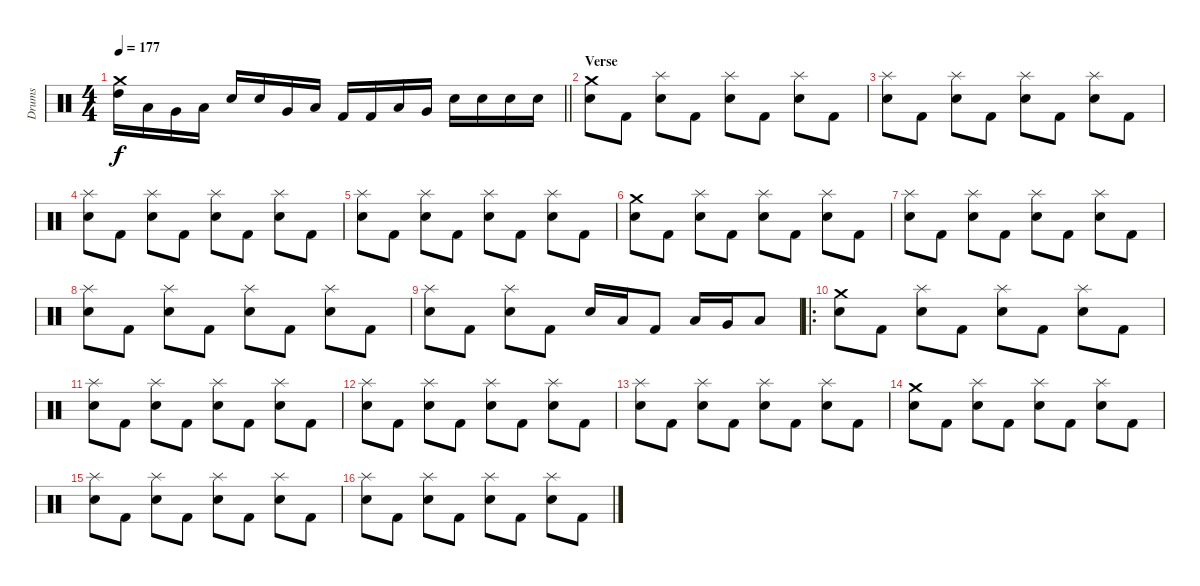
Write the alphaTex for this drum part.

\track ("Drums" "Drums") {instrument percussion}
\staff {score}
\articulation defaults
\ts (4 4)
\tempo 177
\clef neutral
\barLineRight lightlight
\ks c
("High Tom (hit)" "Crash medium (hit)").16{dy f} "Low Tom (hit)".16 "Very Low Tom (hit)".16 "Low Floor Tom (hit)".16 "Snare (hit) 2".16 "Snare (hit) 2".16 "Very Low Tom (hit)".16 "Low Floor Tom (hit)".16 "Kick (hit) 2".16 "Kick (hit) 2".16 "Low Tom (hit)".16 "Very Low Tom (hit)".16 "Snare (hit) 2".16 "Snare (hit) 2".16 "Snare (hit) 2".16 "Snare (hit) 2".16 |
\section ("" "Verse")
("Snare (hit) 2" "Crash medium (hit)").8 "Kick (hit) 2".8 ("Snare (hit) 2" "Splash (hit)").8 "Kick (hit) 2".8 ("Snare (hit) 2" "Splash (hit)").8 "Kick (hit) 2".8 ("Snare (hit) 2" "Splash (hit)").8 "Kick (hit) 2".8 |
("Snare (hit) 2" "Splash (hit)").8 "Kick (hit) 2".8 ("Snare (hit) 2" "Splash (hit)").8 "Kick (hit) 2".8 ("Snare (hit) 2" "Splash (hit)").8 "Kick (hit) 2".8 ("Snare (hit) 2" "Splash (hit)").8 "Kick (hit) 2".8 |
("Snare (hit) 2" "Splash (hit)").8 "Kick (hit) 2".8 ("Snare (hit) 2" "Splash (hit)").8 "Kick (hit) 2".8 ("Snare (hit) 2" "Splash (hit)").8 "Kick (hit) 2".8 ("Snare (hit) 2" "Splash (hit)").8 "Kick (hit) 2".8 |
("Snare (hit) 2" "Splash (hit)").8 "Kick (hit) 2".8 ("Snare (hit) 2" "Splash (hit)").8 "Kick (hit) 2".8 ("Snare (hit) 2" "Splash (hit)").8 "Kick (hit) 2".8 ("Snare (hit) 2" "Splash (hit)").8 "Kick (hit) 2".8 |
("Snare (hit) 2" "Crash medium (hit)").8 "Kick (hit) 2".8 ("Snare (hit) 2" "Splash (hit)").8 "Kick (hit) 2".8 ("Snare (hit) 2" "Splash (hit)").8 "Kick (hit) 2".8 ("Snare (hit) 2" "Splash (hit)").8 "Kick (hit) 2".8 |
("Snare (hit) 2" "Splash (hit)").8 "Kick (hit) 2".8 ("Snare (hit) 2" "Splash (hit)").8 "Kick (hit) 2".8 ("Snare (hit) 2" "Splash (hit)").8 "Kick (hit) 2".8 ("Snare (hit) 2" "Splash (hit)").8 "Kick (hit) 2".8 |
("Snare (hit) 2" "Splash (hit)").8 "Kick (hit) 2".8 ("Snare (hit) 2" "Splash (hit)").8 "Kick (hit) 2".8 ("Snare (hit) 2" "Splash (hit)").8 "Kick (hit) 2".8 ("Snare (hit) 2" "Splash (hit)").8 "Kick (hit) 2".8 |
("Snare (hit) 2" "Splash (hit)").8 "Kick (hit) 2".8 ("Snare (hit) 2" "Splash (hit)").8 "Kick (hit) 2".8 "Snare (hit) 2".16 "Low Tom (hit)".16 "Kick (hit) 2".8 "Low Tom (hit)".16 "Very Low Tom (hit)".16 "Low Floor Tom (hit)".8 |
\ro
("Snare (hit) 2" "Crash medium (hit)").8 "Kick (hit) 2".8 ("Snare (hit) 2" "Splash (hit)").8 "Kick (hit) 2".8 ("Snare (hit) 2" "Splash (hit)").8 "Kick (hit) 2".8 ("Snare (hit) 2" "Splash (hit)").8 "Kick (hit) 2".8 |
("Snare (hit) 2" "Splash (hit)").8 "Kick (hit) 2".8 ("Snare (hit) 2" "Splash (hit)").8 "Kick (hit) 2".8 ("Snare (hit) 2" "Splash (hit)").8 "Kick (hit) 2".8 ("Snare (hit) 2" "Splash (hit)").8 "Kick (hit) 2".8 |
("Snare (hit) 2" "Splash (hit)").8 "Kick (hit) 2".8 ("Snare (hit) 2" "Splash (hit)").8 "Kick (hit) 2".8 ("Snare (hit) 2" "Splash (hit)").8 "Kick (hit) 2".8 ("Snare (hit) 2" "Splash (hit)").8 "Kick (hit) 2".8 |
("Snare (hit) 2" "Splash (hit)").8 "Kick (hit) 2".8 ("Snare (hit) 2" "Splash (hit)").8 "Kick (hit) 2".8 ("Snare (hit) 2" "Splash (hit)").8 "Kick (hit) 2".8 ("Snare (hit) 2" "Splash (hit)").8 "Kick (hit) 2".8 |
("Snare (hit) 2" "Crash medium (hit)").8 "Kick (hit) 2".8 ("Snare (hit) 2" "Splash (hit)").8 "Kick (hit) 2".8 ("Snare (hit) 2" "Splash (hit)").8 "Kick (hit) 2".8 ("Snare (hit) 2" "Splash (hit)").8 "Kick (hit) 2".8 |
("Snare (hit) 2" "Splash (hit)").8 "Kick (hit) 2".8 ("Snare (hit) 2" "Splash (hit)").8 "Kick (hit) 2".8 ("Snare (hit) 2" "Splash (hit)").8 "Kick (hit) 2".8 ("Snare (hit) 2" "Splash (hit)").8 "Kick (hit) 2".8 |
("Snare (hit) 2" "Splash (hit)").8 "Kick (hit) 2".8 ("Snare (hit) 2" "Splash (hit)").8 "Kick (hit) 2".8 ("Snare (hit) 2" "Splash (hit)").8 "Kick (hit) 2".8 ("Snare (hit) 2" "Splash (hit)").8 "Kick (hit) 2".8
